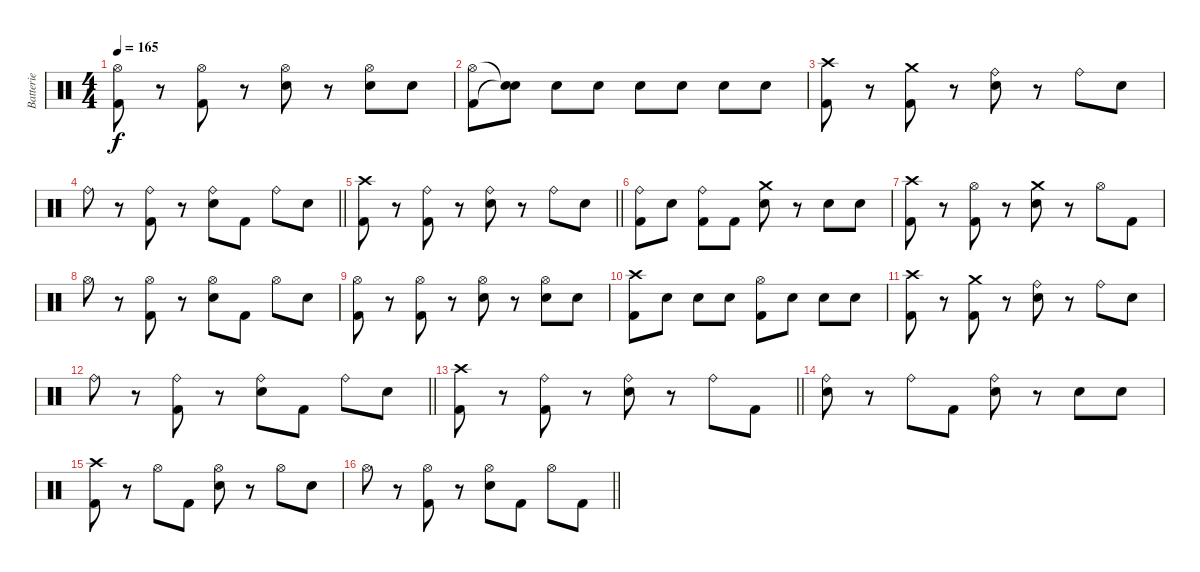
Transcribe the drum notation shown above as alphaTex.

\track ("Batterie" "Batterie") {instrument percussion}
\staff {score}
\articulation defaults
\ts (4 4)
\tempo 165
\clef neutral
\ks c
("Hi-Hat (open)" "Kick (hit) 2").8{dy f} r.8 ("Hi-Hat (open)" "Kick (hit) 2").8 r.8 ("Hi-Hat (open)" "Electric Snare (hit)").8 r.8 ("Hi-Hat (open)" "Electric Snare (hit)").8 "Electric Snare (hit)".8 |
("Hi-Hat (open)" "Kick (hit) 2").8 ("Snare (hit)"{t} "Snare (hit)"{t}).8 "Electric Snare (hit)".8 "Electric Snare (hit)".8 "Electric Snare (hit)".8 "Electric Snare (hit)".8 "Electric Snare (hit)".8 "Electric Snare (hit)".8 |
("Crash high (hit)" "Kick (hit) 2").8 r.8 ("Crash medium (hit)" "Kick (hit) 2").8 r.8 ("Ride (bell)" "Electric Snare (hit)").8 r.8 "Ride (bell)".8 "Electric Snare (hit)".8 |
\barLineRight lightlight "Ride (bell)".8
r.8 ("Ride (bell)" "Kick (hit) 2").8 r.8 ("Ride (bell)" "Electric Snare (hit)").8 "Kick (hit) 2".8 "Ride (bell)".8 "Electric Snare (hit)".8 |
\barLineRight lightlight
("Crash high (hit)" "Kick (hit) 2").8 r.8 ("Ride (bell)" "Kick (hit) 2").8 r.8 ("Ride (bell)" "Electric Snare (hit)").8 r.8 "Ride (bell)".8 "Electric Snare (hit)".8 |
("Ride (bell)" "Kick (hit) 2").8 "Electric Snare (hit)".8 ("Ride (bell)" "Kick (hit) 2").8 "Kick (hit) 2".8 ("Crash medium (hit)" "Electric Snare (hit)").8 r.8 "Electric Snare (hit)".8 "Electric Snare (hit)".8 |
("Crash high (hit)" "Kick (hit) 2").8 r.8 ("Hi-Hat (open)" "Kick (hit) 2").8 r.8 ("Crash medium (hit)" "Electric Snare (hit)").8 r.8 "Hi-Hat (open)".8 "Kick (hit) 2".8 |
"Hi-Hat (open)".8 r.8 ("Hi-Hat (open)" "Kick (hit) 2").8 r.8 ("Hi-Hat (open)" "Electric Snare (hit)").8 "Kick (hit) 2".8 "Hi-Hat (open)".8 "Electric Snare (hit)".8 |
("Hi-Hat (open)" "Kick (hit) 2").8 r.8 ("Hi-Hat (open)" "Kick (hit) 2").8 r.8 ("Hi-Hat (open)" "Electric Snare (hit)").8 r.8 ("Hi-Hat (open)" "Electric Snare (hit)").8 "Electric Snare (hit)".8 |
("Crash high (hit)" "Kick (hit) 2").8 "Electric Snare (hit)".8 "Electric Snare (hit)".8 "Electric Snare (hit)".8 ("Hi-Hat (open)" "Kick (hit) 2").8 "Electric Snare (hit)".8 "Electric Snare (hit)".8 "Electric Snare (hit)".8 |
("Crash high (hit)" "Kick (hit) 2").8 r.8 ("Crash medium (hit)" "Kick (hit) 2").8 r.8 ("Ride (bell)" "Electric Snare (hit)").8 r.8 "Ride (bell)".8 "Electric Snare (hit)".8 |
\barLineRight lightlight "Ride (bell)".8
r.8 ("Ride (bell)" "Kick (hit) 2").8 r.8 ("Ride (bell)" "Electric Snare (hit)").8 "Kick (hit) 2".8 "Ride (bell)".8 "Electric Snare (hit)".8 |
\barLineRight lightlight
("Crash high (hit)" "Kick (hit) 2").8 r.8 ("Ride (bell)" "Kick (hit) 2").8 r.8 ("Ride (bell)" "Electric Snare (hit)").8 r.8 "Ride (bell)".8 "Kick (hit) 2".8 |
("Ride (bell)" "Electric Snare (hit)").8 r.8 "Ride (bell)".8 "Kick (hit) 2".8 ("Ride (bell)" "Electric Snare (hit)").8 r.8 "Electric Snare (hit)".8 "Electric Snare (hit)".8 |
("Crash high (hit)" "Kick (hit) 2").8 r.8 "Hi-Hat (open)".8 "Kick (hit) 2".8 ("Hi-Hat (open)" "Electric Snare (hit)").8 r.8 "Hi-Hat (open)".8 "Electric Snare (hit)".8 |
\barLineRight lightlight "Hi-Hat (open)".8
r.8 ("Hi-Hat (open)" "Kick (hit) 2").8 r.8 ("Hi-Hat (open)" "Electric Snare (hit)").8 "Kick (hit) 2".8 "Hi-Hat (open)".8 "Kick (hit) 2".8
